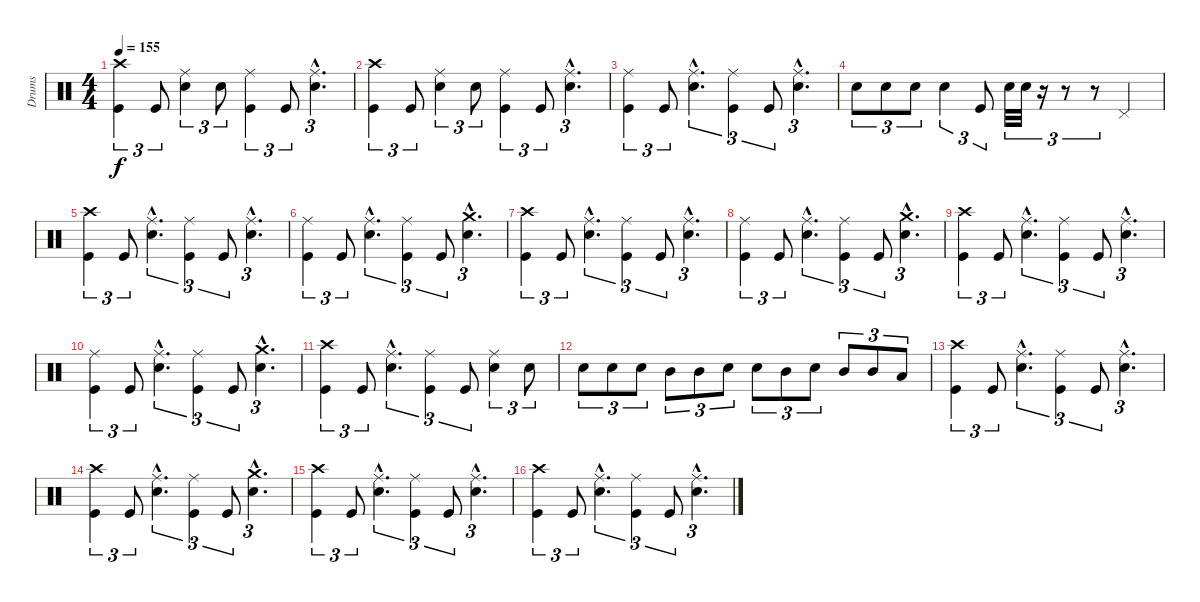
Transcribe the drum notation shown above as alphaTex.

\track ("Drums" "Drums") {instrument percussion}
\staff {score}
\articulation defaults
\ts (4 4)
\tempo 155
\clef neutral
\ks c
("Crash high (hit)" "Kick (hit)").4{tu (3 2) dy f} "Kick (hit)".8{tu (3 2)} ("Ride (middle)" "Snare (hit) 2").4{tu (3 2)} "Snare (hit) 2".8{tu (3 2)} ("Ride (middle)" "Kick (hit)").4{tu (3 2)} "Kick (hit)".8{tu (3 2)} ("Ride (middle)"{hac} "Snare (hit) 2"{hac}).4{d tu (3 2)} |
("Crash high (hit)" "Kick (hit)").4{tu (3 2)} "Kick (hit)".8{tu (3 2)} ("Ride (middle)" "Snare (hit) 2").4{tu (3 2)} "Snare (hit) 2".8{tu (3 2)} ("Ride (middle)" "Kick (hit)").4{tu (3 2)} "Kick (hit)".8{tu (3 2)} ("Ride (middle)"{hac} "Snare (hit) 2"{hac}).4{d tu (3 2)} |
("Ride (middle)" "Kick (hit)").4{tu (3 2)} "Kick (hit)".8{tu (3 2)} ("Ride (middle)"{hac} "Snare (hit) 2"{hac}).4{d tu (3 2)} ("Ride (middle)" "Kick (hit)").4{tu (3 2)} "Kick (hit)".8{tu (3 2)} ("Ride (middle)"{hac} "Snare (hit) 2"{hac}).4{d tu (3 2)} |
"Snare (hit) 2".8{tu (3 2)} "Snare (hit) 2".8{tu (3 2)} "Snare (hit) 2".8{tu (3 2)} "Snare (hit) 2".4{tu (3 2)} "Kick (hit)".8{tu (3 2)} "Snare (hit) 2".32{tu (3 2)} "Snare (hit) 2".32{tu (3 2)} r.16{tu (3 2)} r.8{tu (3 2)} r.8{tu (3 2)} "Pedal Hi-Hat (hit)".4 |
("Crash high (hit)" "Kick (hit)").4{tu (3 2)} "Kick (hit)".8{tu (3 2)} ("Ride (middle)"{hac} "Snare (hit) 2"{hac}).4{d tu (3 2)} ("Ride (middle)" "Kick (hit)").4{tu (3 2)} "Kick (hit)".8{tu (3 2)} ("Ride (middle)"{hac} "Snare (hit) 2"{hac}).4{d tu (3 2)} |
("Ride (middle)" "Kick (hit)").4{tu (3 2)} "Kick (hit)".8{tu (3 2)} ("Ride (middle)"{hac} "Snare (hit) 2"{hac}).4{d tu (3 2)} ("Ride (middle)" "Kick (hit)").4{tu (3 2)} "Kick (hit)".8{tu (3 2)} ("Crash medium (hit)"{hac} "Snare (hit) 2"{hac}).4{d tu (3 2)} |
("Crash high (hit)" "Kick (hit)").4{tu (3 2)} "Kick (hit)".8{tu (3 2)} ("Ride (middle)"{hac} "Snare (hit) 2"{hac}).4{d tu (3 2)} ("Ride (middle)" "Kick (hit)").4{tu (3 2)} "Kick (hit)".8{tu (3 2)} ("Ride (middle)"{hac} "Snare (hit) 2"{hac}).4{d tu (3 2)} |
("Ride (middle)" "Kick (hit)").4{tu (3 2)} "Kick (hit)".8{tu (3 2)} ("Ride (middle)"{hac} "Snare (hit) 2"{hac}).4{d tu (3 2)} ("Ride (middle)" "Kick (hit)").4{tu (3 2)} "Kick (hit)".8{tu (3 2)} ("Crash medium (hit)"{hac} "Snare (hit) 2"{hac}).4{d tu (3 2)} |
("Crash high (hit)" "Kick (hit)").4{tu (3 2)} "Kick (hit)".8{tu (3 2)} ("Ride (middle)"{hac} "Snare (hit) 2"{hac}).4{d tu (3 2)} ("Ride (middle)" "Kick (hit)").4{tu (3 2)} "Kick (hit)".8{tu (3 2)} ("Ride (middle)"{hac} "Snare (hit) 2"{hac}).4{d tu (3 2)} |
("Ride (middle)" "Kick (hit)").4{tu (3 2)} "Kick (hit)".8{tu (3 2)} ("Ride (middle)"{hac} "Snare (hit) 2"{hac}).4{d tu (3 2)} ("Ride (middle)" "Kick (hit)").4{tu (3 2)} "Kick (hit)".8{tu (3 2)} ("Crash medium (hit)"{hac} "Snare (hit) 2"{hac}).4{d tu (3 2)} |
("Crash high (hit)" "Kick (hit)").4{tu (3 2)} "Kick (hit)".8{tu (3 2)} ("Ride (middle)"{hac} "Snare (hit) 2"{hac}).4{d tu (3 2)} ("Ride (middle)" "Kick (hit)").4{tu (3 2)} "Kick (hit)".8{tu (3 2)} ("Ride (middle)" "Snare (hit) 2").4{tu (3 2)} "Snare (hit) 2".8{tu (3 2)} |
"Snare (hit) 2".8{tu (3 2)} "Snare (hit) 2".8{tu (3 2)} "Snare (hit) 2".8{tu (3 2)} "Mid Tom (hit)".8{tu (3 2)} "Mid Tom (hit)".8{tu (3 2)} "Snare (hit) 2".8{tu (3 2)} "Snare (hit) 2".8{tu (3 2)} "Mid Tom (hit)".8{tu (3 2)} "Snare (hit) 2".8{tu (3 2)} "Mid Tom (hit)".8{tu (3 2)} "Mid Tom (hit)".8{tu (3 2)} "Low Tom (hit)".8{tu (3 2)} |
("Crash high (hit)" "Kick (hit)").4{tu (3 2)} "Kick (hit)".8{tu (3 2)} ("Ride (middle)"{hac} "Snare (hit) 2"{hac}).4{d tu (3 2)} ("Ride (middle)" "Kick (hit)").4{tu (3 2)} "Kick (hit)".8{tu (3 2)} ("Ride (middle)"{hac} "Snare (hit) 2"{hac}).4{d tu (3 2)} |
("Crash high (hit)" "Kick (hit)").4{tu (3 2)} "Kick (hit)".8{tu (3 2)} ("Ride (middle)"{hac} "Snare (hit) 2"{hac}).4{d tu (3 2)} ("Ride (middle)" "Kick (hit)").4{tu (3 2)} "Kick (hit)".8{tu (3 2)} ("Crash medium (hit)"{hac} "Snare (hit) 2"{hac}).4{d tu (3 2)} |
("Crash high (hit)" "Kick (hit)").4{tu (3 2)} "Kick (hit)".8{tu (3 2)} ("Ride (middle)"{hac} "Snare (hit) 2"{hac}).4{d tu (3 2)} ("Ride (middle)" "Kick (hit)").4{tu (3 2)} "Kick (hit)".8{tu (3 2)} ("Ride (middle)"{hac} "Snare (hit) 2"{hac}).4{d tu (3 2)} |
("Crash high (hit)" "Kick (hit)").4{tu (3 2)} "Kick (hit)".8{tu (3 2)} ("Ride (middle)"{hac} "Snare (hit) 2"{hac}).4{d tu (3 2)} ("Ride (middle)" "Kick (hit)").4{tu (3 2)} "Kick (hit)".8{tu (3 2)} ("Ride (middle)"{hac} "Snare (hit) 2"{hac}).4{d tu (3 2)}
